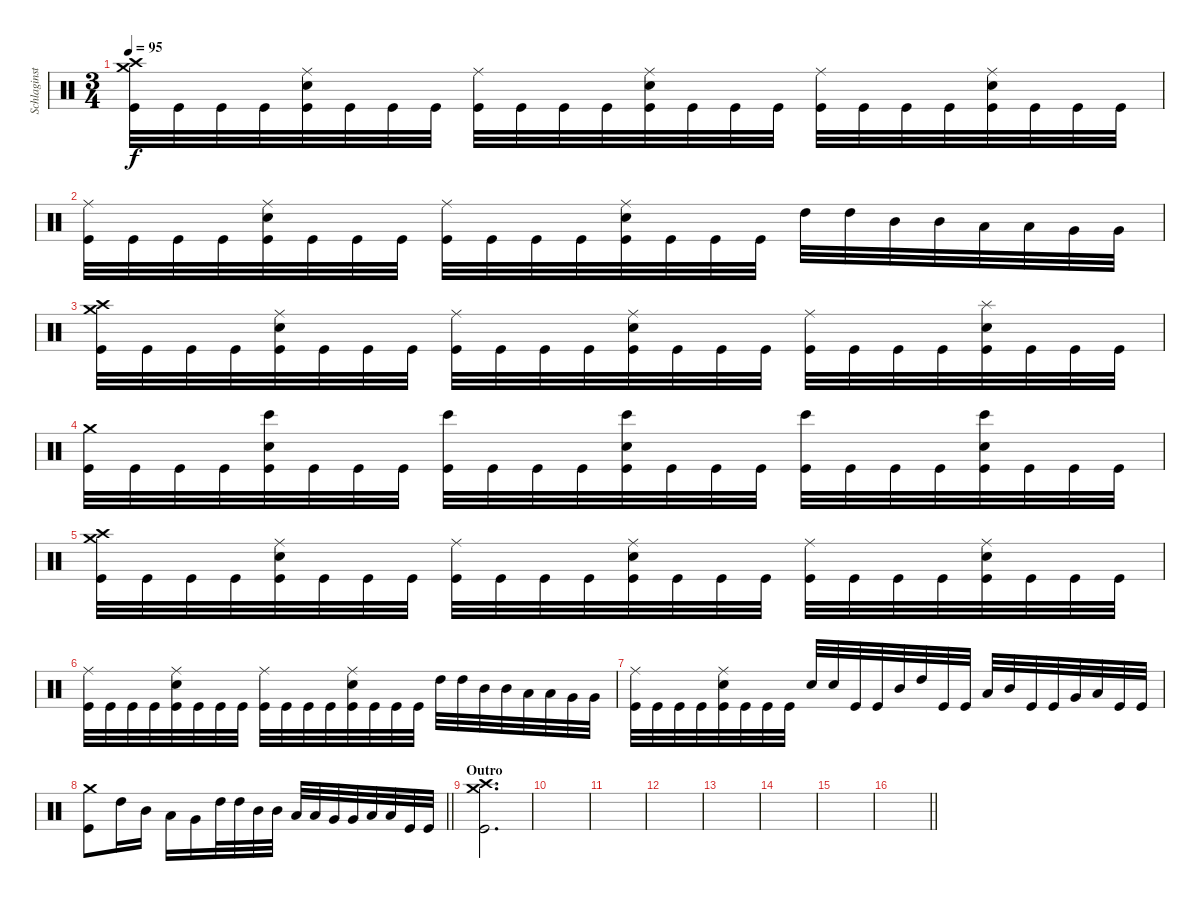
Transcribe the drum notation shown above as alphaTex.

\track ("Schlaginstrumente - Auswahl" "Schlaginst") {instrument percussion}
\staff {score}
\articulation defaults
\ts (3 4)
\tempo 95
\clef neutral
\ks c
("Kick (hit)" "Crash high (hit)" "Crash medium (hit)").32{dy f} "Kick (hit)".32 "Kick (hit)".32 "Kick (hit)".32 ("Kick (hit)" "Snare (hit) 2" "Ride (middle)").32 "Kick (hit)".32 "Kick (hit)".32 "Kick (hit)".32 ("Kick (hit)" "Ride (middle)").32 "Kick (hit)".32 "Kick (hit)".32 "Kick (hit)".32 ("Kick (hit)" "Snare (hit) 2" "Ride (middle)").32 "Kick (hit)".32 "Kick (hit)".32 "Kick (hit)".32 ("Kick (hit)" "Ride (middle)").32 "Kick (hit)".32 "Kick (hit)".32 "Kick (hit)".32 ("Kick (hit)" "Snare (hit) 2" "Ride (middle)").32 "Kick (hit)".32 "Kick (hit)".32 "Kick (hit)".32 |
("Kick (hit)" "Ride (middle)").32 "Kick (hit)".32 "Kick (hit)".32 "Kick (hit)".32 ("Kick (hit)" "Snare (hit) 2" "Ride (middle)").32 "Kick (hit)".32 "Kick (hit)".32 "Kick (hit)".32 ("Kick (hit)" "Ride (middle)").32 "Kick (hit)".32 "Kick (hit)".32 "Kick (hit)".32 ("Kick (hit)" "Snare (hit) 2" "Ride (middle)").32 "Kick (hit)".32 "Kick (hit)".32 "Kick (hit)".32 "High Tom (hit)".32 "High Tom (hit)".32 "Mid Tom (hit)".32 "Mid Tom (hit)".32 "Low Tom (hit)".32 "Low Tom (hit)".32 "Very Low Tom (hit)".32 "Very Low Tom (hit)".32 |
("Kick (hit)" "Crash high (hit)" "Crash medium (hit)").32 "Kick (hit)".32 "Kick (hit)".32 "Kick (hit)".32 ("Kick (hit)" "Snare (hit) 2" "Ride (middle)").32 "Kick (hit)".32 "Kick (hit)".32 "Kick (hit)".32 ("Kick (hit)" "Ride (middle)").32 "Kick (hit)".32 "Kick (hit)".32 "Kick (hit)".32 ("Kick (hit)" "Snare (hit) 2" "Ride (middle)").32 "Kick (hit)".32 "Kick (hit)".32 "Kick (hit)".32 ("Kick (hit)" "Ride (middle)").32 "Kick (hit)".32 "Kick (hit)".32 "Kick (hit)".32 ("Kick (hit)" "Snare (hit) 2" "Splash (hit)").32 "Kick (hit)".32 "Kick (hit)".32 "Kick (hit)".32 |
("Kick (hit)" "Crash medium (hit)").32 "Kick (hit)".32 "Kick (hit)".32 "Kick (hit)".32 ("Kick (hit)" "Snare (hit) 2" "Bongo High (hit)").32 "Kick (hit)".32 "Kick (hit)".32 "Kick (hit)".32 ("Kick (hit)" "Bongo High (hit)").32 "Kick (hit)".32 "Kick (hit)".32 "Kick (hit)".32 ("Kick (hit)" "Snare (hit) 2" "Bongo High (hit)").32 "Kick (hit)".32 "Kick (hit)".32 "Kick (hit)".32 ("Kick (hit)" "Bongo High (hit)").32 "Kick (hit)".32 "Kick (hit)".32 "Kick (hit)".32 ("Kick (hit)" "Snare (hit) 2" "Bongo High (hit)").32 "Kick (hit)".32 "Kick (hit)".32 "Kick (hit)".32 |
("Kick (hit)" "Crash high (hit)" "Crash medium (hit)").32 "Kick (hit)".32 "Kick (hit)".32 "Kick (hit)".32 ("Kick (hit)" "Snare (hit) 2" "Ride (middle)").32 "Kick (hit)".32 "Kick (hit)".32 "Kick (hit)".32 ("Kick (hit)" "Ride (middle)").32 "Kick (hit)".32 "Kick (hit)".32 "Kick (hit)".32 ("Kick (hit)" "Snare (hit) 2" "Ride (middle)").32 "Kick (hit)".32 "Kick (hit)".32 "Kick (hit)".32 ("Kick (hit)" "Ride (middle)").32 "Kick (hit)".32 "Kick (hit)".32 "Kick (hit)".32 ("Kick (hit)" "Snare (hit) 2" "Ride (middle)").32 "Kick (hit)".32 "Kick (hit)".32 "Kick (hit)".32 |
("Kick (hit)" "Ride (middle)").32 "Kick (hit)".32 "Kick (hit)".32 "Kick (hit)".32 ("Kick (hit)" "Snare (hit) 2" "Ride (middle)").32 "Kick (hit)".32 "Kick (hit)".32 "Kick (hit)".32 ("Kick (hit)" "Ride (middle)").32 "Kick (hit)".32 "Kick (hit)".32 "Kick (hit)".32 ("Kick (hit)" "Snare (hit) 2" "Ride (middle)").32 "Kick (hit)".32 "Kick (hit)".32 "Kick (hit)".32 "High Tom (hit)".32 "High Tom (hit)".32 "Mid Tom (hit)".32 "Mid Tom (hit)".32 "Low Tom (hit)".32 "Low Tom (hit)".32 "Very Low Tom (hit)".32 "Very Low Tom (hit)".32 |
("Kick (hit)" "Ride (middle)").32 "Kick (hit)".32 "Kick (hit)".32 "Kick (hit)".32 ("Kick (hit)" "Snare (hit) 2" "Ride (middle)").32 "Kick (hit)".32 "Kick (hit)".32 "Kick (hit)".32 "Snare (hit) 2".32 "Snare (hit) 2".32 "Kick (hit)".32 "Kick (hit)".32 "Mid Tom (hit)".32 "High Tom (hit)".32 "Kick (hit)".32 "Kick (hit)".32 "Low Tom (hit)".32 "Mid Tom (hit)".32 "Kick (hit)".32 "Kick (hit)".32 "Very Low Tom (hit)".32 "Low Tom (hit)".32 "Kick (hit)".32 "Kick (hit)".32 |
\barLineRight lightlight
("Kick (hit)" "Crash medium (hit)").8 "High Tom (hit)".16 "Mid Tom (hit)".16 "Low Tom (hit)".16 "Very Low Tom (hit)".16 "High Tom (hit)".32 "High Tom (hit)".32 "Mid Tom (hit)".32 "Mid Tom (hit)".32 "Low Tom (hit)".32 "Low Tom (hit)".32 "Very Low Tom (hit)".32 "Very Low Tom (hit)".32 "Low Floor Tom (hit)".32 "Low Floor Tom (hit)".32 "Kick (hit)".32 "Kick (hit)".32 |
\section ("" "Outro")
("Crash medium (hit)" "Crash high (hit)" "Kick (hit)").2{d} |
|
|
|
|
|
|
\barLineRight lightlight
